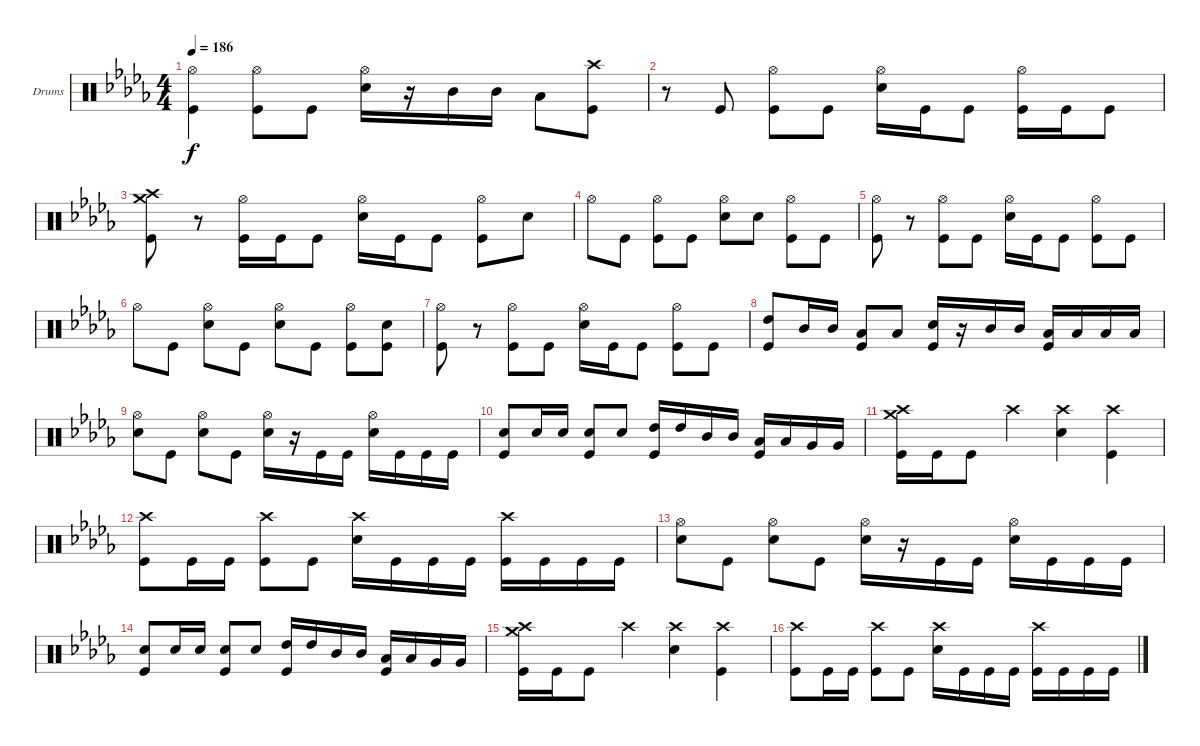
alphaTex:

\bracketExtendMode groupsimilarinstruments
\firstSystemTrackNameOrientation horizontal
\otherSystemsTrackNameOrientation horizontal
\track ("Drumkit" "Drums") {instrument percussion}
\staff {score}
\articulation defaults
\ts (4 4)
\tempo 186
\clef neutral
\ks db
("Hi-Hat (open)" "Kick (hit)").4{dy f} ("Hi-Hat (open)" "Kick (hit)").8 "Kick (hit)".8 ("Hi-Hat (open)" "Snare (hit) 2").16 r.16 "Mid Tom (hit)".16 "Mid Tom (hit)".16 "Low Tom (hit)".8 ("Crash high (hit)" "Kick (hit)").8 |
r.8 "Kick (hit)".8 ("Hi-Hat (open)" "Kick (hit)").8 "Kick (hit)".8 ("Hi-Hat (open)" "Snare (hit) 2").16 "Kick (hit)".16 "Kick (hit)".8 ("Hi-Hat (open)" "Kick (hit)").16 "Kick (hit)".16 "Kick (hit)".8 |
("Crash high (hit)" "Crash medium (hit)" "Kick (hit)").8 r.8 ("Hi-Hat (open)" "Kick (hit)").16 "Kick (hit)".16 "Kick (hit)".8 ("Hi-Hat (open)" "Snare (hit) 2").16 "Kick (hit)".16 "Kick (hit)".8 ("Hi-Hat (open)" "Kick (hit)").8 "Snare (hit) 2".8 |
"Hi-Hat (open)".8 "Kick (hit)".8 ("Hi-Hat (open)" "Kick (hit)").8 "Kick (hit)".8 ("Hi-Hat (open)" "Snare (hit) 2").8 "Snare (hit) 2".8 ("Hi-Hat (open)" "Kick (hit)").8 "Kick (hit)".8 |
("Hi-Hat (open)" "Kick (hit)").8 r.8 ("Hi-Hat (open)" "Kick (hit)").8 "Kick (hit)".8 ("Hi-Hat (open)" "Snare (hit) 2").16 "Kick (hit)".16 "Kick (hit)".8 ("Hi-Hat (open)" "Kick (hit)").8 "Kick (hit)".8 |
"Hi-Hat (open)".8 "Kick (hit)".8 ("Hi-Hat (open)" "Snare (hit) 2").8 "Kick (hit)".8 ("Hi-Hat (open)" "Snare (hit) 2").8 "Kick (hit)".8 ("Hi-Hat (open)" "Kick (hit)").8 ("Snare (hit) 2" "Kick (hit)").8 |
("Hi-Hat (open)" "Kick (hit)").8 r.8 ("Hi-Hat (open)" "Kick (hit)").8 "Kick (hit)".8 ("Hi-Hat (open)" "Snare (hit) 2").16 "Kick (hit)".16 "Kick (hit)".8 ("Hi-Hat (open)" "Kick (hit)").8 "Kick (hit)".8 |
("High Tom (hit)" "Kick (hit)").8 "Mid Tom (hit)".16 "Mid Tom (hit)".16 ("Low Tom (hit)" "Kick (hit)").8 "Low Tom (hit)".8 ("Snare (hit) 2" "Kick (hit)").16 r.16 "Mid Tom (hit)".16 "Mid Tom (hit)".16 ("Low Tom (hit)" "Kick (hit)").16 "Low Tom (hit)".16 "Low Tom (hit)".16 "Low Tom (hit)".16 |
("Hi-Hat (open)" "Snare (hit) 2").8 "Kick (hit)".8 ("Hi-Hat (open)" "Snare (hit) 2").8 "Kick (hit)".8 ("Hi-Hat (open)" "Snare (hit) 2").16 r.16 "Kick (hit)".16 "Kick (hit)".16 ("Hi-Hat (open)" "Snare (hit) 2").16 "Kick (hit)".16 "Kick (hit)".16 "Kick (hit)".16 |
("Snare (hit) 2" "Kick (hit)").8 "Snare (hit) 2".16 "Snare (hit) 2".16 ("Snare (hit) 2" "Kick (hit)").8 "Snare (hit) 2".8 ("High Tom (hit)" "Kick (hit)").16 "High Tom (hit)".16 "Mid Tom (hit)".16 "Mid Tom (hit)".16 ("Low Tom (hit)" "Kick (hit)").16 "Low Tom (hit)".16 "Very Low Tom (hit)".16 "Very Low Tom (hit)".16 |
("Crash high (hit)" "Crash medium (hit)" "Kick (hit)").16 "Kick (hit)".16 "Kick (hit)".8 "Crash high (hit)".4 ("Crash high (hit)" "Snare (hit) 2").4 ("Crash high (hit)" "Kick (hit)").4 |
("Crash high (hit)" "Kick (hit)").8 "Kick (hit)".16 "Kick (hit)".16 ("Crash high (hit)" "Kick (hit)").8 "Kick (hit)".8 ("Crash high (hit)" "Snare (hit) 2").16 "Kick (hit)".16 "Kick (hit)".16 "Kick (hit)".16 ("Crash high (hit)" "Kick (hit)").16 "Kick (hit)".16 "Kick (hit)".16 "Kick (hit)".16 |
("Hi-Hat (open)" "Snare (hit) 2").8 "Kick (hit)".8 ("Hi-Hat (open)" "Snare (hit) 2").8 "Kick (hit)".8 ("Hi-Hat (open)" "Snare (hit) 2").16 r.16 "Kick (hit)".16 "Kick (hit)".16 ("Hi-Hat (open)" "Snare (hit) 2").16 "Kick (hit)".16 "Kick (hit)".16 "Kick (hit)".16 |
("Snare (hit) 2" "Kick (hit)").8 "Snare (hit) 2".16 "Snare (hit) 2".16 ("Snare (hit) 2" "Kick (hit)").8 "Snare (hit) 2".8 ("High Tom (hit)" "Kick (hit)").16 "High Tom (hit)".16 "Mid Tom (hit)".16 "Mid Tom (hit)".16 ("Low Tom (hit)" "Kick (hit)").16 "Low Tom (hit)".16 "Very Low Tom (hit)".16 "Very Low Tom (hit)".16 |
("Crash high (hit)" "Crash medium (hit)" "Kick (hit)").16 "Kick (hit)".16 "Kick (hit)".8 "Crash high (hit)".4 ("Crash high (hit)" "Snare (hit) 2").4 ("Crash high (hit)" "Kick (hit)").4 |
("Crash high (hit)" "Kick (hit)").8 "Kick (hit)".16 "Kick (hit)".16 ("Crash high (hit)" "Kick (hit)").8 "Kick (hit)".8 ("Crash high (hit)" "Snare (hit) 2").16 "Kick (hit)".16 "Kick (hit)".16 "Kick (hit)".16 ("Crash high (hit)" "Kick (hit)").16 "Kick (hit)".16 "Kick (hit)".16 "Kick (hit)".16
